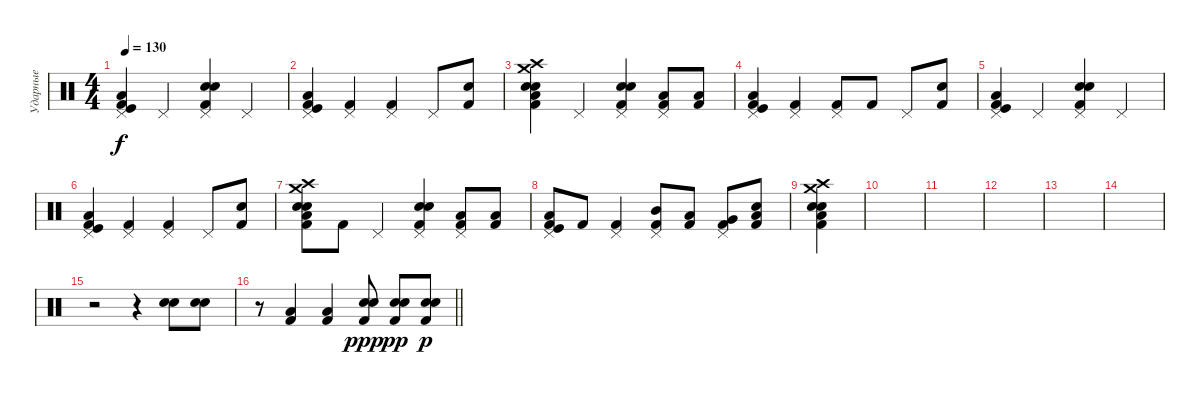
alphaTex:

\track ("Ударные" "Ударные") {instrument percussion}
\staff {score}
\articulation defaults
\ts (4 4)
\tempo 130
\clef neutral
\ks c
("Kick (hit) 2" "Kick (hit)" "Pedal Hi-Hat (hit)" "Low Floor Tom (hit)").4{dy f} "Pedal Hi-Hat (hit)".4 ("Kick (hit) 2" "Pedal Hi-Hat (hit)" "Snare (hit) 2" "Electric Snare (hit)").4 "Pedal Hi-Hat (hit)".4 |
("Kick (hit) 2" "Kick (hit)" "Pedal Hi-Hat (hit)" "Low Floor Tom (hit)").4 ("Kick (hit) 2" "Pedal Hi-Hat (hit)").4 ("Kick (hit) 2" "Pedal Hi-Hat (hit)").4 "Pedal Hi-Hat (hit)".8 ("Electric Snare (hit)" "Kick (hit) 2").8 |
("Kick (hit) 2" "Electric Snare (hit)" "Snare (hit) 2" "Crash high (hit)" "Crash medium (hit)" "Low Floor Tom (hit)").4 "Pedal Hi-Hat (hit)".4 ("Pedal Hi-Hat (hit)" "Kick (hit) 2" "Snare (hit) 2" "Electric Snare (hit)").4 ("Kick (hit) 2" "Pedal Hi-Hat (hit)" "Low Floor Tom (hit)").8 ("Low Floor Tom (hit)" "Kick (hit) 2").8 |
("Kick (hit) 2" "Kick (hit)" "Pedal Hi-Hat (hit)" "Low Floor Tom (hit)").4 ("Kick (hit) 2" "Pedal Hi-Hat (hit)").4 ("Kick (hit) 2" "Pedal Hi-Hat (hit)").8 "Kick (hit) 2".8 "Pedal Hi-Hat (hit)".8 ("Electric Snare (hit)" "Kick (hit) 2").8 |
("Kick (hit) 2" "Kick (hit)" "Pedal Hi-Hat (hit)" "Low Floor Tom (hit)").4 "Pedal Hi-Hat (hit)".4 ("Kick (hit) 2" "Pedal Hi-Hat (hit)" "Snare (hit) 2" "Electric Snare (hit)").4 "Pedal Hi-Hat (hit)".4 |
("Kick (hit) 2" "Kick (hit)" "Pedal Hi-Hat (hit)" "Low Floor Tom (hit)").4 ("Kick (hit) 2" "Pedal Hi-Hat (hit)").4 ("Kick (hit) 2" "Pedal Hi-Hat (hit)").4 "Pedal Hi-Hat (hit)".8 ("Electric Snare (hit)" "Kick (hit) 2").8 |
("Kick (hit) 2" "Electric Snare (hit)" "Snare (hit) 2" "Crash high (hit)" "Crash medium (hit)" "Low Floor Tom (hit)").8 "Kick (hit) 2".8 "Pedal Hi-Hat (hit)".4 ("Pedal Hi-Hat (hit)" "Kick (hit) 2" "Snare (hit) 2" "Electric Snare (hit)").4 ("Kick (hit) 2" "Pedal Hi-Hat (hit)" "Low Floor Tom (hit)").8 ("Low Floor Tom (hit)" "Kick (hit) 2").8 |
("Kick (hit) 2" "Kick (hit)" "Pedal Hi-Hat (hit)" "Low Floor Tom (hit)").8 "Kick (hit) 2".8 ("Kick (hit) 2" "Pedal Hi-Hat (hit)").4 ("Kick (hit) 2" "Pedal Hi-Hat (hit)" "Mid Tom (hit)").8 ("Kick (hit) 2" "Low Tom (hit)").8 ("Kick (hit) 2" "Pedal Hi-Hat (hit)" "Very Low Tom (hit)").8 ("Electric Snare (hit)" "Kick (hit) 2" "Low Floor Tom (hit)").8 |
("Kick (hit) 2" "Electric Snare (hit)" "Snare (hit) 2" "Crash high (hit)" "Crash medium (hit)" "Low Floor Tom (hit)").4 |
|
|
|
|
|
r.2 r.4 ("Electric Snare (hit)" "Snare (hit) 2").8 ("Snare (hit) 2" "Electric Snare (hit)").8 |
\barLineRight lightlight
r.8 ("Kick (hit) 2" "Low Floor Tom (hit)").4 ("Low Floor Tom (hit)" "Kick (hit) 2").4 ("Kick (hit) 2" "Electric Snare (hit)" "Snare (hit) 2").8{dy ppp} ("Kick (hit) 2" "Electric Snare (hit)" "Snare (hit) 2").8{dy pp} ("Kick (hit) 2" "Electric Snare (hit)" "Snare (hit) 2").8{dy p}
